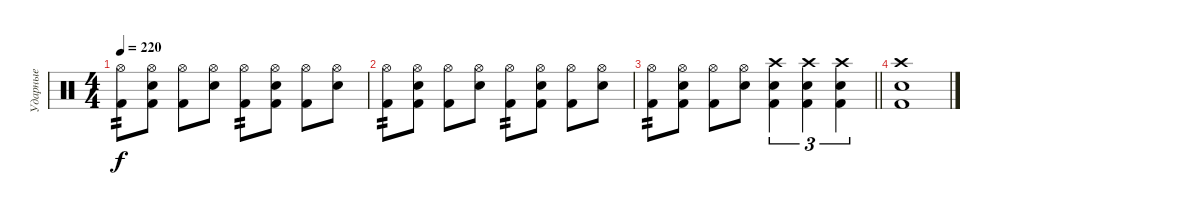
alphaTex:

\track ("Ударные" "Ударные") {instrument percussion}
\staff {score}
\articulation defaults
\ts (4 4)
\tempo 220
\clef neutral
\ks c
("Hi-Hat (open)" "Kick (hit) 2").8{tp 2 dy f} ("Hi-Hat (open)" "Electric Snare (hit)" "Kick (hit) 2").8 ("Hi-Hat (open)" "Kick (hit) 2").8 ("Hi-Hat (open)" "Electric Snare (hit)").8 ("Hi-Hat (open)" "Kick (hit) 2").8{tp 2} ("Hi-Hat (open)" "Electric Snare (hit)" "Kick (hit) 2").8 ("Hi-Hat (open)" "Kick (hit) 2").8 ("Hi-Hat (open)" "Electric Snare (hit)").8 |
("Hi-Hat (open)" "Kick (hit) 2").8{tp 2} ("Hi-Hat (open)" "Electric Snare (hit)" "Kick (hit) 2").8 ("Hi-Hat (open)" "Kick (hit) 2").8 ("Hi-Hat (open)" "Electric Snare (hit)").8 ("Hi-Hat (open)" "Kick (hit) 2").8{tp 2} ("Hi-Hat (open)" "Electric Snare (hit)" "Kick (hit) 2").8 ("Hi-Hat (open)" "Kick (hit) 2").8 ("Hi-Hat (open)" "Electric Snare (hit)").8 |
\barLineRight lightlight
("Hi-Hat (open)" "Kick (hit) 2").8{tp 2} ("Hi-Hat (open)" "Electric Snare (hit)" "Kick (hit) 2").8 ("Hi-Hat (open)" "Kick (hit) 2").8 ("Hi-Hat (open)" "Electric Snare (hit)").8 ("Crash high (hit)" "Electric Snare (hit)" "Kick (hit) 2").4{tu (3 2)} ("Crash high (hit)" "Electric Snare (hit)" "Kick (hit) 2").4{tu (3 2)} ("Crash high (hit)" "Electric Snare (hit)" "Kick (hit) 2").4{tu (3 2)} |
("Crash high (hit)" "Electric Snare (hit)" "Kick (hit) 2").1
